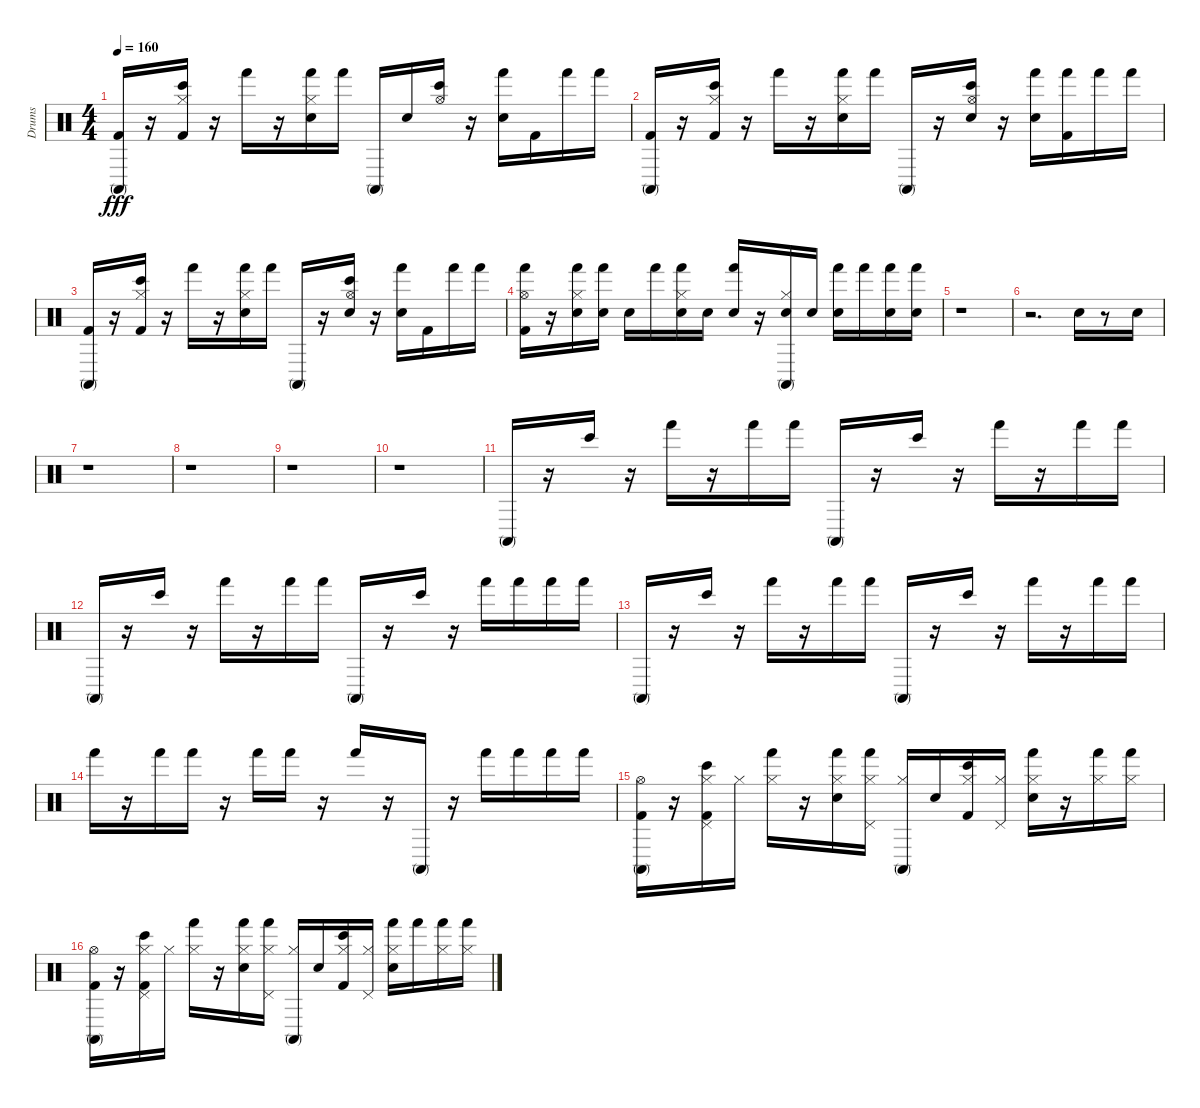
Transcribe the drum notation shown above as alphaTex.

\track ("Drums" "Drums") {instrument percussion}
\staff {score}
\articulation defaults
\ts (4 4)
\tempo 160
\clef neutral
\ks c
("Kick (hit) 2" "Conga high (mute)").16{dy fff} r.16 ("Kick (hit) 2" "Bongo High (hit)" "Hi-Hat (closed)").16 r.16 "Hand (hit)".16 r.16 ("Hand (hit)" "Electric Snare (hit)" "Hi-Hat (closed)").16 "Hand (hit)".16 "Conga high (mute)".16 "Electric Snare (hit)".16 ("Hi-Hat (open)" "Bongo High (hit)").16 r.16 ("Hand (hit)" "Electric Snare (hit)").16 "Kick (hit) 2".16 "Hand (hit)".16 "Hand (hit)".16 |
("Conga high (mute)" "Kick (hit) 2").16 r.16 ("Hi-Hat (closed)" "Kick (hit) 2" "Bongo High (hit)").16 r.16 "Hand (hit)".16 r.16 ("Hi-Hat (closed)" "Electric Snare (hit)" "Hand (hit)").16 "Hand (hit)".16 "Conga high (mute)".16 r.16 ("Bongo High (hit)" "Electric Snare (hit)" "Hi-Hat (open)").16 r.16 ("Electric Snare (hit)" "Hand (hit)").16 ("Kick (hit) 2" "Hand (hit)").16 "Hand (hit)".16 "Hand (hit)".16 |
("Kick (hit) 2" "Conga high (mute)").16 r.16 ("Bongo High (hit)" "Kick (hit) 2" "Hi-Hat (closed)").16 r.16 "Hand (hit)".16 r.16 ("Hi-Hat (closed)" "Hand (hit)" "Electric Snare (hit)").16 "Hand (hit)".16 "Conga high (mute)".16 r.16 ("Bongo High (hit)" "Electric Snare (hit)" "Hi-Hat (open)").16 r.16 ("Hand (hit)" "Electric Snare (hit)").16 "Kick (hit) 2".16 "Hand (hit)".16 "Hand (hit)".16 |
("Hi-Hat (open)" "Hand (hit)" "Kick (hit) 2").16 r.16 ("Hand (hit)" "Hi-Hat (closed)" "Electric Snare (hit)").16 ("Hand (hit)" "Electric Snare (hit)").16 "Electric Snare (hit)".16 "Hand (hit)".16 ("Hi-Hat (closed)" "Hand (hit)" "Electric Snare (hit)").16 "Electric Snare (hit)".16 ("Hand (hit)" "Electric Snare (hit)").16 r.16 ("Conga high (mute)" "Hi-Hat (closed)" "Electric Snare (hit)").16 "Electric Snare (hit)".16 ("Hand (hit)" "Electric Snare (hit)").16 "Hand (hit)".16 ("Hand (hit)" "Electric Snare (hit)").16 ("Electric Snare (hit)" "Hand (hit)").16 |
r.1 |
r.2{d} "Snare (hit) 2".16 r.8 "Snare (hit) 2".16 |
r.1 |
r.1 |
r.1 |
r.1 |
"Conga high (mute)".16 r.16 "Bongo High (hit)".16 r.16 "Hand (hit)".16 r.16 "Hand (hit)".16 "Hand (hit)".16 "Conga high (mute)".16 r.16 "Bongo High (hit)".16 r.16 "Hand (hit)".16 r.16 "Hand (hit)".16 "Hand (hit)".16 |
"Conga high (mute)".16 r.16 "Bongo High (hit)".16 r.16 "Hand (hit)".16 r.16 "Hand (hit)".16 "Hand (hit)".16 "Conga high (mute)".16 r.16 "Bongo High (hit)".16 r.16 "Hand (hit)".16 "Hand (hit)".16 "Hand (hit)".16 "Hand (hit)".16 |
"Conga high (mute)".16 r.16 "Bongo High (hit)".16 r.16 "Hand (hit)".16 r.16 "Hand (hit)".16 "Hand (hit)".16 "Conga high (mute)".16 r.16 "Bongo High (hit)".16 r.16 "Hand (hit)".16 r.16 "Hand (hit)".16 "Hand (hit)".16 |
"Hand (hit)".16 r.16 "Hand (hit)".16 "Hand (hit)".16 r.16 "Hand (hit)".16 "Hand (hit)".16 r.16 "Hand (hit)".16 r.16 "Conga high (mute)".16 r.16 "Hand (hit)".16 "Hand (hit)".16 "Hand (hit)".16 "Hand (hit)".16 |
("Conga high (mute)" "Hi-Hat (open)" "Kick (hit) 2").16 r.16 ("Kick (hit) 2" "Bongo High (hit)" "Pedal Hi-Hat (hit)" "Hi-Hat (closed)").16 "Hi-Hat (closed)".16 ("Hand (hit)" "Hi-Hat (closed)").16 r.16 ("Electric Snare (hit)" "Hi-Hat (closed)" "Hand (hit)").16 ("Pedal Hi-Hat (hit)" "Hand (hit)" "Hi-Hat (closed)").16 ("Hi-Hat (closed)" "Conga high (mute)").16 "Electric Snare (hit)".16 ("Kick (hit) 2" "Hi-Hat (closed)" "Bongo High (hit)").16 ("Hi-Hat (closed)" "Pedal Hi-Hat (hit)").16 ("Electric Snare (hit)" "Hand (hit)" "Hi-Hat (closed)").16 r.16 ("Hand (hit)" "Hi-Hat (closed)").16 ("Hi-Hat (closed)" "Hand (hit)").16 |
("Conga high (mute)" "Hi-Hat (open)" "Kick (hit) 2").16 r.16 ("Pedal Hi-Hat (hit)" "Kick (hit) 2" "Hi-Hat (closed)" "Bongo High (hit)").16 "Hi-Hat (closed)".16 ("Hand (hit)" "Hi-Hat (closed)").16 r.16 ("Hand (hit)" "Hi-Hat (closed)" "Electric Snare (hit)").16 ("Hand (hit)" "Hi-Hat (closed)" "Pedal Hi-Hat (hit)").16 ("Hi-Hat (closed)" "Conga high (mute)").16 "Electric Snare (hit)".16 ("Kick (hit) 2" "Hi-Hat (closed)" "Bongo High (hit)").16 ("Pedal Hi-Hat (hit)" "Hi-Hat (closed)").16 ("Electric Snare (hit)" "Hi-Hat (closed)" "Hand (hit)").16 "Hand (hit)".16 ("Hi-Hat (closed)" "Hand (hit)").16 ("Hand (hit)" "Hi-Hat (closed)").16
